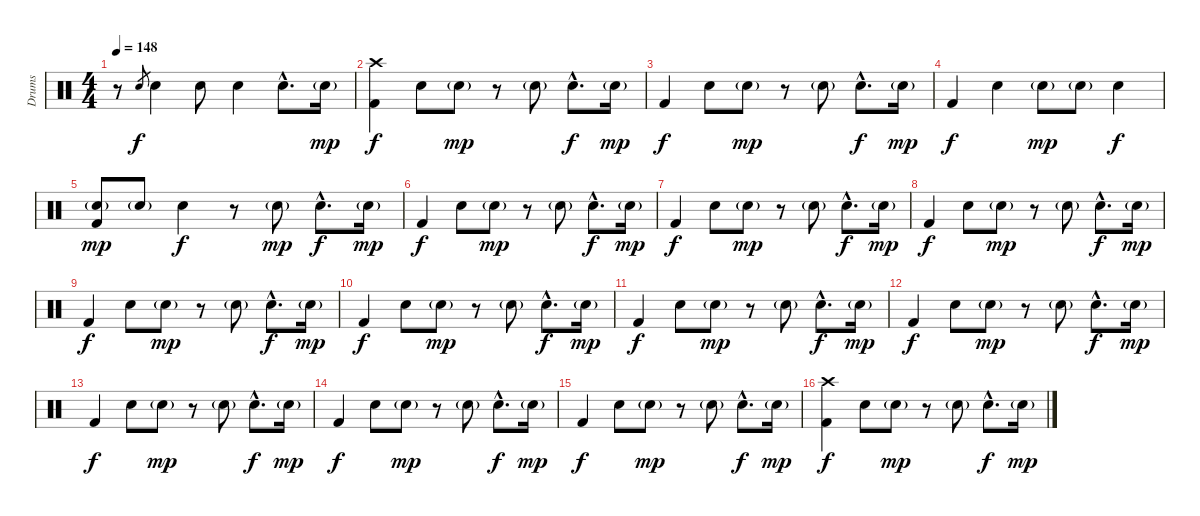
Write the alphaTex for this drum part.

\track ("Drums" "Drums") {instrument percussion}
\staff {score}
\articulation defaults
\ts (4 4)
\tempo 148
\clef neutral
\ks c
r.8{dy f} "Electric Snare (hit)".8{gr} "Electric Snare (hit)".4 "Electric Snare (hit)".8 "Electric Snare (hit)".4 "Electric Snare (hit)"{hac}.8{d} "Electric Snare (hit)"{g}.16{dy mp} |
("Crash high (hit)" "Kick (hit) 2").4{dy f} "Electric Snare (hit)".8 "Electric Snare (hit)"{g}.8{dy mp} r.8 "Electric Snare (hit)"{g}.8 "Electric Snare (hit)"{hac}.8{d dy f} "Electric Snare (hit)"{g}.16{dy mp} |
"Kick (hit) 2".4{dy f} "Electric Snare (hit)".8 "Electric Snare (hit)"{g}.8{dy mp} r.8 "Electric Snare (hit)"{g}.8 "Electric Snare (hit)"{hac}.8{d dy f} "Electric Snare (hit)"{g}.16{dy mp} |
"Kick (hit) 2".4{dy f} "Electric Snare (hit)".4 "Electric Snare (hit)"{g}.8{dy mp} "Electric Snare (hit)"{g}.8 "Electric Snare (hit)".4{dy f} |
("Electric Snare (hit)"{g} "Kick (hit) 2").8{dy mp} "Electric Snare (hit)"{g}.8 "Electric Snare (hit)".4{dy f} r.8 "Electric Snare (hit)"{g}.8{dy mp} "Electric Snare (hit)"{hac}.8{d dy f} "Electric Snare (hit)"{g}.16{dy mp} |
"Kick (hit) 2".4{dy f} "Electric Snare (hit)".8 "Electric Snare (hit)"{g}.8{dy mp} r.8 "Electric Snare (hit)"{g}.8 "Electric Snare (hit)"{hac}.8{d dy f} "Electric Snare (hit)"{g}.16{dy mp} |
"Kick (hit) 2".4{dy f} "Electric Snare (hit)".8 "Electric Snare (hit)"{g}.8{dy mp} r.8 "Electric Snare (hit)"{g}.8 "Electric Snare (hit)"{hac}.8{d dy f} "Electric Snare (hit)"{g}.16{dy mp} |
"Kick (hit) 2".4{dy f} "Electric Snare (hit)".8 "Electric Snare (hit)"{g}.8{dy mp} r.8 "Electric Snare (hit)"{g}.8 "Electric Snare (hit)"{hac}.8{d dy f} "Electric Snare (hit)"{g}.16{dy mp} |
"Kick (hit) 2".4{dy f} "Electric Snare (hit)".8 "Electric Snare (hit)"{g}.8{dy mp} r.8 "Electric Snare (hit)"{g}.8 "Electric Snare (hit)"{hac}.8{d dy f} "Electric Snare (hit)"{g}.16{dy mp} |
"Kick (hit) 2".4{dy f} "Electric Snare (hit)".8 "Electric Snare (hit)"{g}.8{dy mp} r.8 "Electric Snare (hit)"{g}.8 "Electric Snare (hit)"{hac}.8{d dy f} "Electric Snare (hit)"{g}.16{dy mp} |
"Kick (hit) 2".4{dy f} "Electric Snare (hit)".8 "Electric Snare (hit)"{g}.8{dy mp} r.8 "Electric Snare (hit)"{g}.8 "Electric Snare (hit)"{hac}.8{d dy f} "Electric Snare (hit)"{g}.16{dy mp} |
"Kick (hit) 2".4{dy f} "Electric Snare (hit)".8 "Electric Snare (hit)"{g}.8{dy mp} r.8 "Electric Snare (hit)"{g}.8 "Electric Snare (hit)"{hac}.8{d dy f} "Electric Snare (hit)"{g}.16{dy mp} |
"Kick (hit) 2".4{dy f} "Electric Snare (hit)".8 "Electric Snare (hit)"{g}.8{dy mp} r.8 "Electric Snare (hit)"{g}.8 "Electric Snare (hit)"{hac}.8{d dy f} "Electric Snare (hit)"{g}.16{dy mp} |
"Kick (hit) 2".4{dy f} "Electric Snare (hit)".8 "Electric Snare (hit)"{g}.8{dy mp} r.8 "Electric Snare (hit)"{g}.8 "Electric Snare (hit)"{hac}.8{d dy f} "Electric Snare (hit)"{g}.16{dy mp} |
"Kick (hit) 2".4{dy f} "Electric Snare (hit)".8 "Electric Snare (hit)"{g}.8{dy mp} r.8 "Electric Snare (hit)"{g}.8 "Electric Snare (hit)"{hac}.8{d dy f} "Electric Snare (hit)"{g}.16{dy mp} |
("Crash high (hit)" "Kick (hit) 2").4{dy f} "Electric Snare (hit)".8 "Electric Snare (hit)"{g}.8{dy mp} r.8 "Electric Snare (hit)"{g}.8 "Electric Snare (hit)"{hac}.8{d dy f} "Electric Snare (hit)"{g}.16{dy mp}
